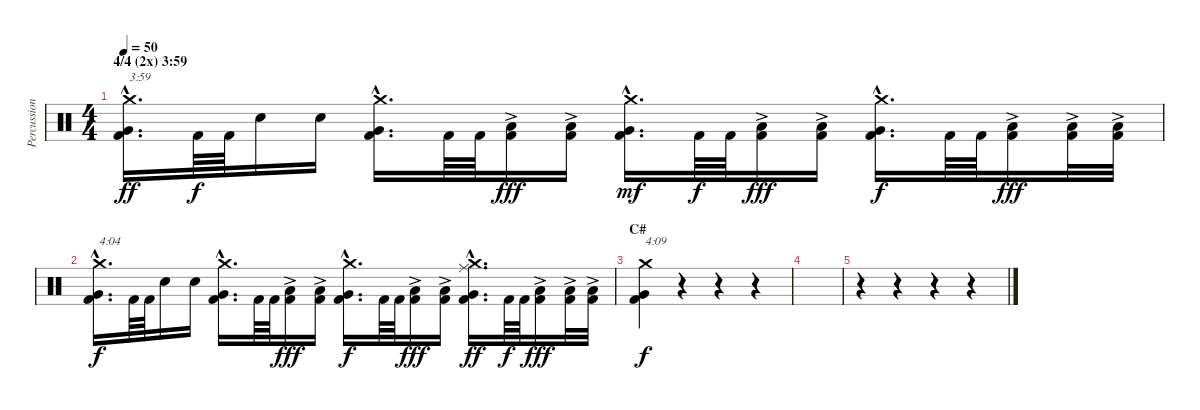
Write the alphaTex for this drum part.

\track ("Percussion" "Percussion") {instrument percussion}
\staff {score}
\articulation defaults
\ts (4 4)
\section ("" "4/4 (2x) 3:59")
\tempo 50
\clef neutral
\ks c
("Kick (hit) 2"{hac} "Very Low Tom (hit)"{hac} "Crash medium (hit)"{hac}).16{d txt "3:59" dy ff} "Kick (hit) 2".64{dy f} "Kick (hit) 2".64 "Electric Snare (hit)".16 "Electric Snare (hit)".16 ("Kick (hit) 2"{hac} "Very Low Tom (hit)"{hac} "Crash medium (hit)"{hac}).16{d} "Kick (hit) 2".64 "Kick (hit) 2".64 ("Kick (hit) 2" "Low Tom (hit)"{ac}).16{dy fff} ("Kick (hit) 2" "Low Tom (hit)"{ac}).16 ("Kick (hit) 2"{hac} "Very Low Tom (hit)"{hac} "Crash medium (hit)"{hac}).16{d dy mf} "Kick (hit) 2".64{dy f} "Kick (hit) 2".64 ("Kick (hit) 2" "Low Tom (hit)"{ac}).16{dy fff} ("Kick (hit) 2" "Low Tom (hit)"{ac}).16 ("Kick (hit) 2"{hac} "Very Low Tom (hit)"{hac} "Crash medium (hit)"{hac}).16{d dy f} "Kick (hit) 2".64 "Kick (hit) 2".64 ("Kick (hit) 2" "Low Tom (hit)"{ac}).16{dy fff} ("Kick (hit) 2" "Low Tom (hit)"{ac}).32 ("Kick (hit) 2" "Low Tom (hit)"{ac}).32 |
("Kick (hit) 2"{hac} "Very Low Tom (hit)"{hac} "Crash medium (hit)"{hac}).16{d txt "4:04" dy f} "Kick (hit) 2".64 "Kick (hit) 2".64 "Electric Snare (hit)".16 "Electric Snare (hit)".16 ("Kick (hit) 2"{hac} "Very Low Tom (hit)"{hac} "Crash medium (hit)"{hac}).16{d} "Kick (hit) 2".64 "Kick (hit) 2".64 ("Kick (hit) 2" "Low Tom (hit)"{ac}).16{dy fff} ("Kick (hit) 2" "Low Tom (hit)"{ac}).16 ("Kick (hit) 2"{hac} "Very Low Tom (hit)"{hac} "Crash medium (hit)"{hac}).16{d dy f} "Kick (hit) 2".64 "Kick (hit) 2".64 ("Kick (hit) 2" "Low Tom (hit)"{ac}).16{dy fff} ("Kick (hit) 2" "Low Tom (hit)"{ac}).16 ("Kick (hit) 2"{hac} "Very Low Tom (hit)"{hac} "Ride (middle)"{hac} "Crash medium (hit)"{hac}).16{d dy ff} "Kick (hit) 2".64{dy f} "Kick (hit) 2".64 ("Kick (hit) 2" "Low Tom (hit)"{ac}).16{dy fff} ("Kick (hit) 2" "Low Tom (hit)"{ac}).32 ("Kick (hit) 2" "Low Tom (hit)"{ac}).32 |
\section ("" "C#")
("Kick (hit) 2" "Very Low Tom (hit)" "Crash medium (hit)").4{txt "4:09" dy f} r.4 r.4 r.4 |
|
r.4 r.4 r.4 r.4
